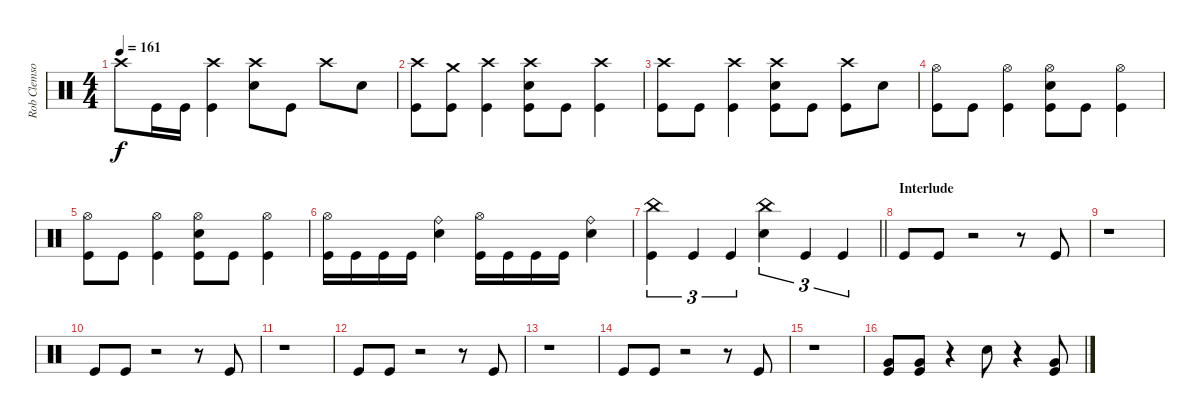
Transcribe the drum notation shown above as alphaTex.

\track ("Rob Clemson (Drums)" "Rob Clemso") {instrument percussion}
\staff {score}
\articulation defaults
\ts (4 4)
\tempo 161
\clef neutral
\ks c "Crash high (hit)".8{dy f} "Kick (hit)".16 "Kick (hit)".16
("Kick (hit)" "Crash high (hit)").4 ("Crash high (hit)" "Electric Snare (hit)").8 "Kick (hit)".8 "Crash high (hit)".8 "Electric Snare (hit)".8 |
("Kick (hit)" "Crash high (hit)").8 ("Kick (hit)" "Crash medium (hit)").8 ("Kick (hit)" "Crash high (hit)").4 ("Crash high (hit)" "Electric Snare (hit)" "Kick (hit)").8 "Kick (hit)".8 ("Kick (hit)" "Crash high (hit)").4 |
("Kick (hit)" "Crash high (hit)").8 "Kick (hit)".8 ("Kick (hit)" "Crash high (hit)").4 ("Crash high (hit)" "Electric Snare (hit)" "Kick (hit)").8 "Kick (hit)".8 ("Kick (hit)" "Crash high (hit)").8 "Electric Snare (hit)".8 |
("Hi-Hat (open)" "Kick (hit)").8 "Kick (hit)".8 ("Kick (hit)" "Hi-Hat (open)").4 ("Hi-Hat (open)" "Kick (hit)" "Electric Snare (hit)").8 "Kick (hit)".8 ("Kick (hit)" "Hi-Hat (open)").4 |
("Hi-Hat (open)" "Kick (hit)").8 "Kick (hit)".8 ("Kick (hit)" "Hi-Hat (open)").4 ("Hi-Hat (open)" "Kick (hit)" "Electric Snare (hit)").8 "Kick (hit)".8 ("Kick (hit)" "Hi-Hat (open)").4 |
("Kick (hit)" "Hi-Hat (open)").16 "Kick (hit)".16 "Kick (hit)".16 "Kick (hit)".16 ("Electric Snare (hit)" "Ride (bell)").4 ("Kick (hit)" "Hi-Hat (open)").16 "Kick (hit)".16 "Kick (hit)".16 "Kick (hit)".16 ("Electric Snare (hit)" "Ride (bell)").4 |
\barLineRight lightlight
("Kick (hit)" "China (hit)").4{tu (3 2)} "Kick (hit)".4{tu (3 2)} "Kick (hit)".4{tu (3 2)} ("Electric Snare (hit)" "China (hit)").4{tu (3 2)} "Kick (hit)".4{tu (3 2)} "Kick (hit)".4{tu (3 2)} |
\section ("" "Interlude")
"Kick (hit)".8 "Kick (hit)".8 r.2 r.8 "Kick (hit)".8 |
r.1 |
"Kick (hit)".8 "Kick (hit)".8 r.2 r.8 "Kick (hit)".8 |
r.1 |
"Kick (hit)".8 "Kick (hit)".8 r.2 r.8 "Kick (hit)".8 |
r.1 |
"Kick (hit)".8 "Kick (hit)".8 r.2 r.8 "Kick (hit)".8 |
r.1 |
("Kick (hit)" "Very Low Tom (hit)").8 ("Kick (hit)" "Very Low Tom (hit)").8 r.4 "Electric Snare (hit)".8 r.4 ("Kick (hit)" "Very Low Tom (hit)").8
